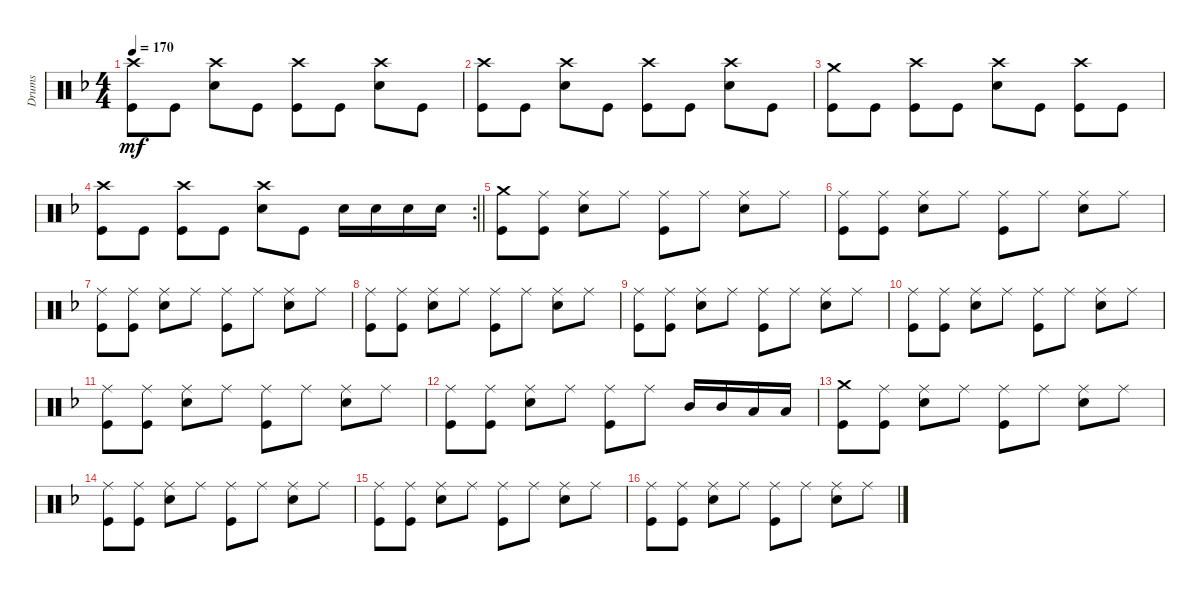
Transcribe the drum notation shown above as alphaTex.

\track ("Drums" "Drums") {instrument percussion}
\staff {score}
\articulation defaults
\ts (4 4)
\tempo 170
\clef neutral
\ks f
("Kick (hit)" "Crash high (hit)").8{dy mf} "Kick (hit)".8 ("Snare (hit) 2" "Crash high (hit)").8 "Kick (hit)".8 ("Kick (hit)" "Crash high (hit)").8 "Kick (hit)".8 ("Snare (hit) 2" "Crash high (hit)").8 "Kick (hit)".8 |
("Kick (hit)" "Crash high (hit)").8 "Kick (hit)".8 ("Snare (hit) 2" "Crash high (hit)").8 "Kick (hit)".8 ("Kick (hit)" "Crash high (hit)").8 "Kick (hit)".8 ("Snare (hit) 2" "Crash high (hit)").8 "Kick (hit)".8 |
("Kick (hit)" "Crash medium (hit)").8 "Kick (hit)".8 ("Kick (hit)" "Crash high (hit)").8 "Kick (hit)".8 ("Snare (hit) 2" "Crash high (hit)").8 "Kick (hit)".8 ("Kick (hit)" "Crash high (hit)").8 "Kick (hit)".8 |
\rc 2
\barLineRight lightlight
("Kick (hit)" "Crash high (hit)").8 "Kick (hit)".8 ("Kick (hit)" "Crash high (hit)").8 "Kick (hit)".8 ("Snare (hit) 2" "Crash high (hit)").8 "Kick (hit)".8 "Snare (hit) 2".16 "Snare (hit) 2".16 "Snare (hit) 2".16 "Snare (hit) 2".16 |
("Kick (hit)" "Crash medium (hit)").8 ("Kick (hit)" "Ride (middle)").8 ("Snare (hit) 2" "Ride (middle)").8 "Ride (middle)".8 ("Kick (hit)" "Ride (middle)").8 "Ride (middle)".8 ("Snare (hit) 2" "Ride (middle)").8 "Ride (middle)".8 |
("Kick (hit)" "Ride (middle)").8 ("Kick (hit)" "Ride (middle)").8 ("Snare (hit) 2" "Ride (middle)").8 "Ride (middle)".8 ("Kick (hit)" "Ride (middle)").8 "Ride (middle)".8 ("Snare (hit) 2" "Ride (middle)").8 "Ride (middle)".8 |
("Kick (hit)" "Ride (middle)").8 ("Kick (hit)" "Ride (middle)").8 ("Snare (hit) 2" "Ride (middle)").8 "Ride (middle)".8 ("Kick (hit)" "Ride (middle)").8 "Ride (middle)".8 ("Snare (hit) 2" "Ride (middle)").8 "Ride (middle)".8 |
("Kick (hit)" "Ride (middle)").8 ("Kick (hit)" "Ride (middle)").8 ("Snare (hit) 2" "Ride (middle)").8 "Ride (middle)".8 ("Kick (hit)" "Ride (middle)").8 "Ride (middle)".8 ("Snare (hit) 2" "Ride (middle)").8 "Ride (middle)".8 |
("Kick (hit)" "Ride (middle)").8 ("Kick (hit)" "Ride (middle)").8 ("Snare (hit) 2" "Ride (middle)").8 "Ride (middle)".8 ("Kick (hit)" "Ride (middle)").8 "Ride (middle)".8 ("Snare (hit) 2" "Ride (middle)").8 "Ride (middle)".8 |
("Kick (hit)" "Ride (middle)").8 ("Kick (hit)" "Ride (middle)").8 ("Snare (hit) 2" "Ride (middle)").8 "Ride (middle)".8 ("Kick (hit)" "Ride (middle)").8 "Ride (middle)".8 ("Snare (hit) 2" "Ride (middle)").8 "Ride (middle)".8 |
("Kick (hit)" "Ride (middle)").8 ("Kick (hit)" "Ride (middle)").8 ("Snare (hit) 2" "Ride (middle)").8 "Ride (middle)".8 ("Kick (hit)" "Ride (middle)").8 "Ride (middle)".8 ("Snare (hit) 2" "Ride (middle)").8 "Ride (middle)".8 |
("Kick (hit)" "Ride (middle)").8 ("Kick (hit)" "Ride (middle)").8 ("Snare (hit) 2" "Ride (middle)").8 "Ride (middle)".8 ("Kick (hit)" "Ride (middle)").8 "Ride (middle)".8 "Mid Tom (hit)".16 "Mid Tom (hit)".16 "Low Tom (hit)".16 "Low Tom (hit)".16 |
("Kick (hit)" "Crash medium (hit)").8 ("Kick (hit)" "Ride (middle)").8 ("Snare (hit) 2" "Ride (middle)").8 "Ride (middle)".8 ("Kick (hit)" "Ride (middle)").8 "Ride (middle)".8 ("Snare (hit) 2" "Ride (middle)").8 "Ride (middle)".8 |
("Kick (hit)" "Ride (middle)").8 ("Kick (hit)" "Ride (middle)").8 ("Snare (hit) 2" "Ride (middle)").8 "Ride (middle)".8 ("Kick (hit)" "Ride (middle)").8 "Ride (middle)".8 ("Snare (hit) 2" "Ride (middle)").8 "Ride (middle)".8 |
("Kick (hit)" "Ride (middle)").8 ("Kick (hit)" "Ride (middle)").8 ("Snare (hit) 2" "Ride (middle)").8 "Ride (middle)".8 ("Kick (hit)" "Ride (middle)").8 "Ride (middle)".8 ("Snare (hit) 2" "Ride (middle)").8 "Ride (middle)".8 |
("Kick (hit)" "Ride (middle)").8 ("Kick (hit)" "Ride (middle)").8 ("Snare (hit) 2" "Ride (middle)").8 "Ride (middle)".8 ("Kick (hit)" "Ride (middle)").8 "Ride (middle)".8 ("Snare (hit) 2" "Ride (middle)").8 "Ride (middle)".8
